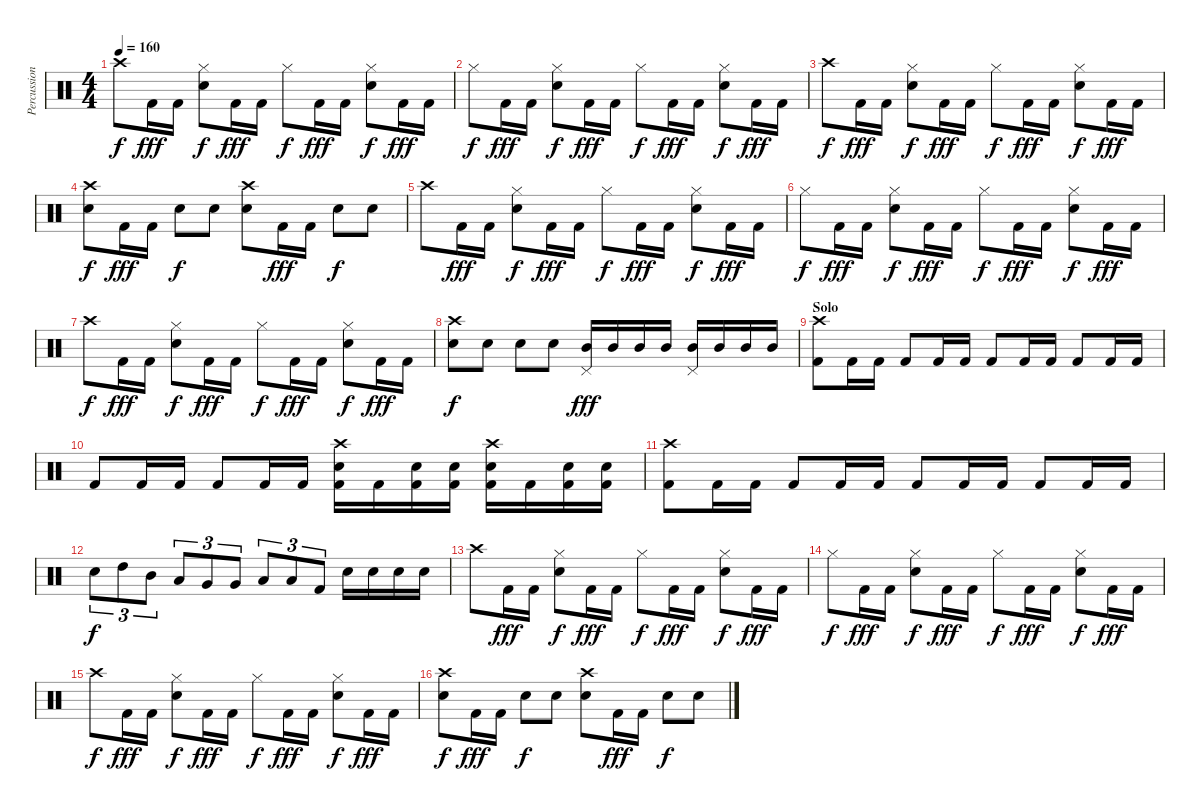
\track ("Percussion" "Percussion") {instrument percussion}
\staff {score}
\articulation defaults
\ts (4 4)
\tempo 160
\clef neutral
\ks c "Crash high (hit)".8{dy f} "Kick (hit) 2".16{dy fff} "Kick (hit) 2".16
("Hi-Hat (closed)" "Electric Snare (hit)").8{dy f} "Kick (hit) 2".16{dy fff} "Kick (hit) 2".16 "Hi-Hat (closed)".8{dy f} "Kick (hit) 2".16{dy fff} "Kick (hit) 2".16 ("Hi-Hat (closed)" "Electric Snare (hit)").8{dy f} "Kick (hit) 2".16{dy fff} "Kick (hit) 2".16 |
"Hi-Hat (closed)".8{dy f} "Kick (hit) 2".16{dy fff} "Kick (hit) 2".16 ("Hi-Hat (closed)" "Electric Snare (hit)").8{dy f} "Kick (hit) 2".16{dy fff} "Kick (hit) 2".16 "Hi-Hat (closed)".8{dy f} "Kick (hit) 2".16{dy fff} "Kick (hit) 2".16 ("Hi-Hat (closed)" "Electric Snare (hit)").8{dy f} "Kick (hit) 2".16{dy fff} "Kick (hit) 2".16 |
"Crash high (hit)".8{dy f} "Kick (hit) 2".16{dy fff} "Kick (hit) 2".16 ("Hi-Hat (closed)" "Electric Snare (hit)").8{dy f} "Kick (hit) 2".16{dy fff} "Kick (hit) 2".16 "Hi-Hat (closed)".8{dy f} "Kick (hit) 2".16{dy fff} "Kick (hit) 2".16 ("Hi-Hat (closed)" "Electric Snare (hit)").8{dy f} "Kick (hit) 2".16{dy fff} "Kick (hit) 2".16 |
("Crash high (hit)" "Electric Snare (hit)").8{dy f} "Kick (hit) 2".16{dy fff} "Kick (hit) 2".16 "Electric Snare (hit)".8{dy f} "Electric Snare (hit)".8 ("Crash high (hit)" "Electric Snare (hit)").8 "Kick (hit) 2".16{dy fff} "Kick (hit) 2".16 "Electric Snare (hit)".8{dy f} "Electric Snare (hit)".8 |
"Crash high (hit)".8 "Kick (hit) 2".16{dy fff} "Kick (hit) 2".16 ("Hi-Hat (closed)" "Electric Snare (hit)").8{dy f} "Kick (hit) 2".16{dy fff} "Kick (hit) 2".16 "Hi-Hat (closed)".8{dy f} "Kick (hit) 2".16{dy fff} "Kick (hit) 2".16 ("Hi-Hat (closed)" "Electric Snare (hit)").8{dy f} "Kick (hit) 2".16{dy fff} "Kick (hit) 2".16 |
"Hi-Hat (closed)".8{dy f} "Kick (hit) 2".16{dy fff} "Kick (hit) 2".16 ("Hi-Hat (closed)" "Electric Snare (hit)").8{dy f} "Kick (hit) 2".16{dy fff} "Kick (hit) 2".16 "Hi-Hat (closed)".8{dy f} "Kick (hit) 2".16{dy fff} "Kick (hit) 2".16 ("Hi-Hat (closed)" "Electric Snare (hit)").8{dy f} "Kick (hit) 2".16{dy fff} "Kick (hit) 2".16 |
"Crash high (hit)".8{dy f} "Kick (hit) 2".16{dy fff} "Kick (hit) 2".16 ("Hi-Hat (closed)" "Electric Snare (hit)").8{dy f} "Kick (hit) 2".16{dy fff} "Kick (hit) 2".16 "Hi-Hat (closed)".8{dy f} "Kick (hit) 2".16{dy fff} "Kick (hit) 2".16 ("Hi-Hat (closed)" "Electric Snare (hit)").8{dy f} "Kick (hit) 2".16{dy fff} "Kick (hit) 2".16 |
("Crash high (hit)" "Electric Snare (hit)").8{dy f} "Electric Snare (hit)".8 "Electric Snare (hit)".8 "Electric Snare (hit)".8 ("Pedal Hi-Hat (hit)" "Mid Tom (hit)").16{dy fff} "Mid Tom (hit)".16 "Mid Tom (hit)".16 "Mid Tom (hit)".16 ("Pedal Hi-Hat (hit)" "Mid Tom (hit)").16 "Mid Tom (hit)".16 "Mid Tom (hit)".16 "Mid Tom (hit)".16 |
\section ("" "Solo")
("Crash high (hit)" "Kick (hit) 2").8 "Kick (hit) 2".16 "Kick (hit) 2".16 "Kick (hit) 2".8 "Kick (hit) 2".16 "Kick (hit) 2".16 "Kick (hit) 2".8 "Kick (hit) 2".16 "Kick (hit) 2".16 "Kick (hit) 2".8 "Kick (hit) 2".16 "Kick (hit) 2".16 |
"Kick (hit) 2".8 "Kick (hit) 2".16 "Kick (hit) 2".16 "Kick (hit) 2".8 "Kick (hit) 2".16 "Kick (hit) 2".16 ("Crash high (hit)" "Electric Snare (hit)" "Kick (hit) 2").16 "Kick (hit) 2".16 ("Electric Snare (hit)" "Kick (hit) 2").16 ("Electric Snare (hit)" "Kick (hit) 2").16 ("Crash high (hit)" "Electric Snare (hit)" "Kick (hit) 2").16 "Kick (hit) 2".16 ("Electric Snare (hit)" "Kick (hit) 2").16 ("Electric Snare (hit)" "Kick (hit) 2").16 |
("Crash high (hit)" "Kick (hit) 2").8 "Kick (hit) 2".16 "Kick (hit) 2".16 "Kick (hit) 2".8 "Kick (hit) 2".16 "Kick (hit) 2".16 "Kick (hit) 2".8 "Kick (hit) 2".16 "Kick (hit) 2".16 "Kick (hit) 2".8 "Kick (hit) 2".16 "Kick (hit) 2".16 |
"Electric Snare (hit)".8{tu (3 2) dy f} "High Tom (hit)".8{tu (3 2)} "Mid Tom (hit)".8{tu (3 2)} "Low Tom (hit)".8{tu (3 2)} "Very Low Tom (hit)".8{tu (3 2)} "Very Low Tom (hit)".8{tu (3 2)} "Low Floor Tom (hit)".8{tu (3 2)} "Low Floor Tom (hit)".8{tu (3 2)} "Kick (hit) 2".8{tu (3 2)} "Electric Snare (hit)".16 "Electric Snare (hit)".16 "Electric Snare (hit)".16 "Electric Snare (hit)".16 |
"Crash high (hit)".8 "Kick (hit) 2".16{dy fff} "Kick (hit) 2".16 ("Hi-Hat (closed)" "Electric Snare (hit)").8{dy f} "Kick (hit) 2".16{dy fff} "Kick (hit) 2".16 "Hi-Hat (closed)".8{dy f} "Kick (hit) 2".16{dy fff} "Kick (hit) 2".16 ("Hi-Hat (closed)" "Electric Snare (hit)").8{dy f} "Kick (hit) 2".16{dy fff} "Kick (hit) 2".16 |
"Hi-Hat (closed)".8{dy f} "Kick (hit) 2".16{dy fff} "Kick (hit) 2".16 ("Hi-Hat (closed)" "Electric Snare (hit)").8{dy f} "Kick (hit) 2".16{dy fff} "Kick (hit) 2".16 "Hi-Hat (closed)".8{dy f} "Kick (hit) 2".16{dy fff} "Kick (hit) 2".16 ("Hi-Hat (closed)" "Electric Snare (hit)").8{dy f} "Kick (hit) 2".16{dy fff} "Kick (hit) 2".16 |
"Crash high (hit)".8{dy f} "Kick (hit) 2".16{dy fff} "Kick (hit) 2".16 ("Hi-Hat (closed)" "Electric Snare (hit)").8{dy f} "Kick (hit) 2".16{dy fff} "Kick (hit) 2".16 "Hi-Hat (closed)".8{dy f} "Kick (hit) 2".16{dy fff} "Kick (hit) 2".16 ("Hi-Hat (closed)" "Electric Snare (hit)").8{dy f} "Kick (hit) 2".16{dy fff} "Kick (hit) 2".16 |
("Crash high (hit)" "Electric Snare (hit)").8{dy f} "Kick (hit) 2".16{dy fff} "Kick (hit) 2".16 "Electric Snare (hit)".8{dy f} "Electric Snare (hit)".8 ("Crash high (hit)" "Electric Snare (hit)").8 "Kick (hit) 2".16{dy fff} "Kick (hit) 2".16 "Electric Snare (hit)".8{dy f} "Electric Snare (hit)".8
